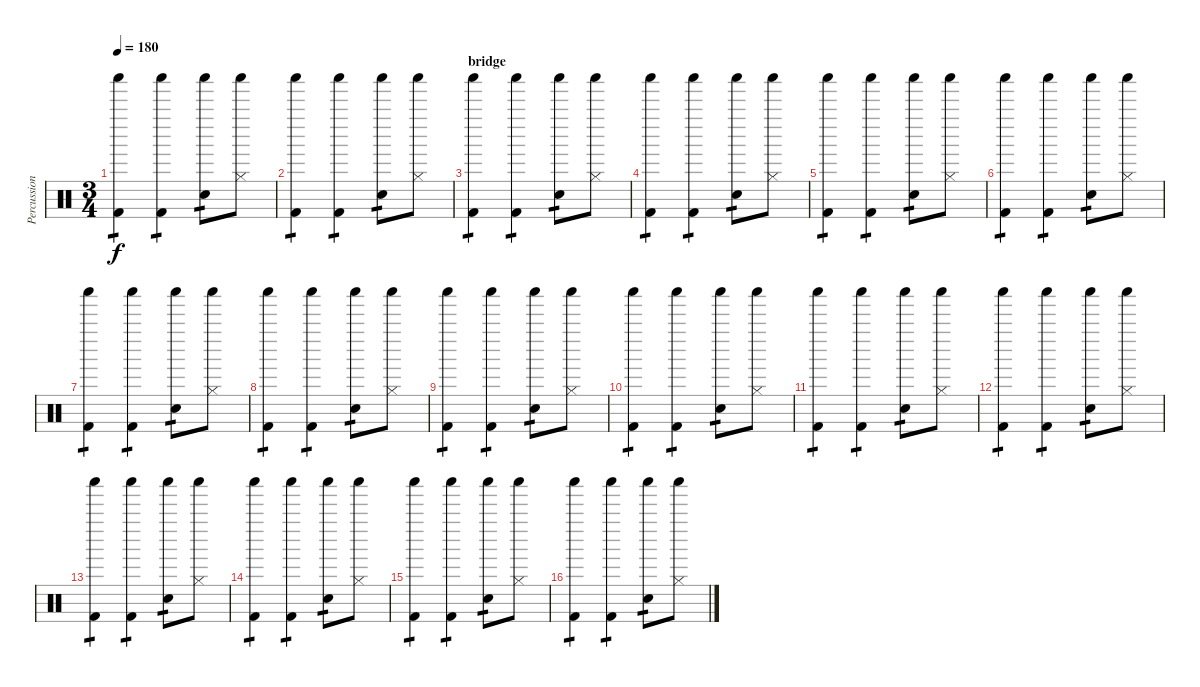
\track ("Percussions" "Percussion") {instrument percussion}
\staff {score}
\articulation defaults
\ts (3 4)
\tempo 180
\clef neutral
\ks c
("Kick (hit) 2" "Shaker (hit)").4{tp 1 dy f} ("Kick (hit) 2" "Shaker (hit)").4{tp 1} ("Shaker (hit)" "Snare (hit) 2").8{tp 1} ("Shaker (hit)" "Hi-Hat (closed)").8 |
("Kick (hit) 2" "Shaker (hit)").4{tp 1} ("Kick (hit) 2" "Shaker (hit)").4{tp 1} ("Shaker (hit)" "Snare (hit) 2").8{tp 1} ("Shaker (hit)" "Hi-Hat (closed)").8 |
\section ("" "bridge")
("Kick (hit) 2" "Shaker (hit)").4{tp 1} ("Kick (hit) 2" "Shaker (hit)").4{tp 1} ("Shaker (hit)" "Snare (hit) 2").8{tp 1} ("Shaker (hit)" "Hi-Hat (closed)").8 |
("Kick (hit) 2" "Shaker (hit)").4{tp 1} ("Kick (hit) 2" "Shaker (hit)").4{tp 1} ("Shaker (hit)" "Snare (hit) 2").8{tp 1} ("Shaker (hit)" "Hi-Hat (closed)").8 |
("Kick (hit) 2" "Shaker (hit)").4{tp 1} ("Kick (hit) 2" "Shaker (hit)").4{tp 1} ("Shaker (hit)" "Snare (hit) 2").8{tp 1} ("Shaker (hit)" "Hi-Hat (closed)").8 |
("Kick (hit) 2" "Shaker (hit)").4{tp 1} ("Kick (hit) 2" "Shaker (hit)").4{tp 1} ("Shaker (hit)" "Snare (hit) 2").8{tp 1} ("Shaker (hit)" "Hi-Hat (closed)").8 |
("Kick (hit) 2" "Shaker (hit)").4{tp 1} ("Kick (hit) 2" "Shaker (hit)").4{tp 1} ("Shaker (hit)" "Snare (hit) 2").8{tp 1} ("Shaker (hit)" "Hi-Hat (closed)").8 |
("Kick (hit) 2" "Shaker (hit)").4{tp 1} ("Kick (hit) 2" "Shaker (hit)").4{tp 1} ("Shaker (hit)" "Snare (hit) 2").8{tp 1} ("Shaker (hit)" "Hi-Hat (closed)").8 |
("Kick (hit) 2" "Shaker (hit)").4{tp 1} ("Kick (hit) 2" "Shaker (hit)").4{tp 1} ("Shaker (hit)" "Snare (hit) 2").8{tp 1} ("Shaker (hit)" "Hi-Hat (closed)").8 |
("Kick (hit) 2" "Shaker (hit)").4{tp 1} ("Kick (hit) 2" "Shaker (hit)").4{tp 1} ("Shaker (hit)" "Snare (hit) 2").8{tp 1} ("Shaker (hit)" "Hi-Hat (closed)").8 |
("Kick (hit) 2" "Shaker (hit)").4{tp 1} ("Kick (hit) 2" "Shaker (hit)").4{tp 1} ("Shaker (hit)" "Snare (hit) 2").8{tp 1} ("Shaker (hit)" "Hi-Hat (closed)").8 |
("Kick (hit) 2" "Shaker (hit)").4{tp 1} ("Kick (hit) 2" "Shaker (hit)").4{tp 1} ("Shaker (hit)" "Snare (hit) 2").8{tp 1} ("Shaker (hit)" "Hi-Hat (closed)").8 |
("Kick (hit) 2" "Shaker (hit)").4{tp 1} ("Kick (hit) 2" "Shaker (hit)").4{tp 1} ("Shaker (hit)" "Snare (hit) 2").8{tp 1} ("Shaker (hit)" "Hi-Hat (closed)").8 |
("Kick (hit) 2" "Shaker (hit)").4{tp 1} ("Kick (hit) 2" "Shaker (hit)").4{tp 1} ("Shaker (hit)" "Snare (hit) 2").8{tp 1} ("Shaker (hit)" "Hi-Hat (closed)").8 |
("Kick (hit) 2" "Shaker (hit)").4{tp 1} ("Kick (hit) 2" "Shaker (hit)").4{tp 1} ("Shaker (hit)" "Snare (hit) 2").8{tp 1} ("Shaker (hit)" "Hi-Hat (closed)").8 |
("Kick (hit) 2" "Shaker (hit)").4{tp 1} ("Kick (hit) 2" "Shaker (hit)").4{tp 1} ("Shaker (hit)" "Snare (hit) 2").8{tp 1} ("Shaker (hit)" "Hi-Hat (closed)").8
